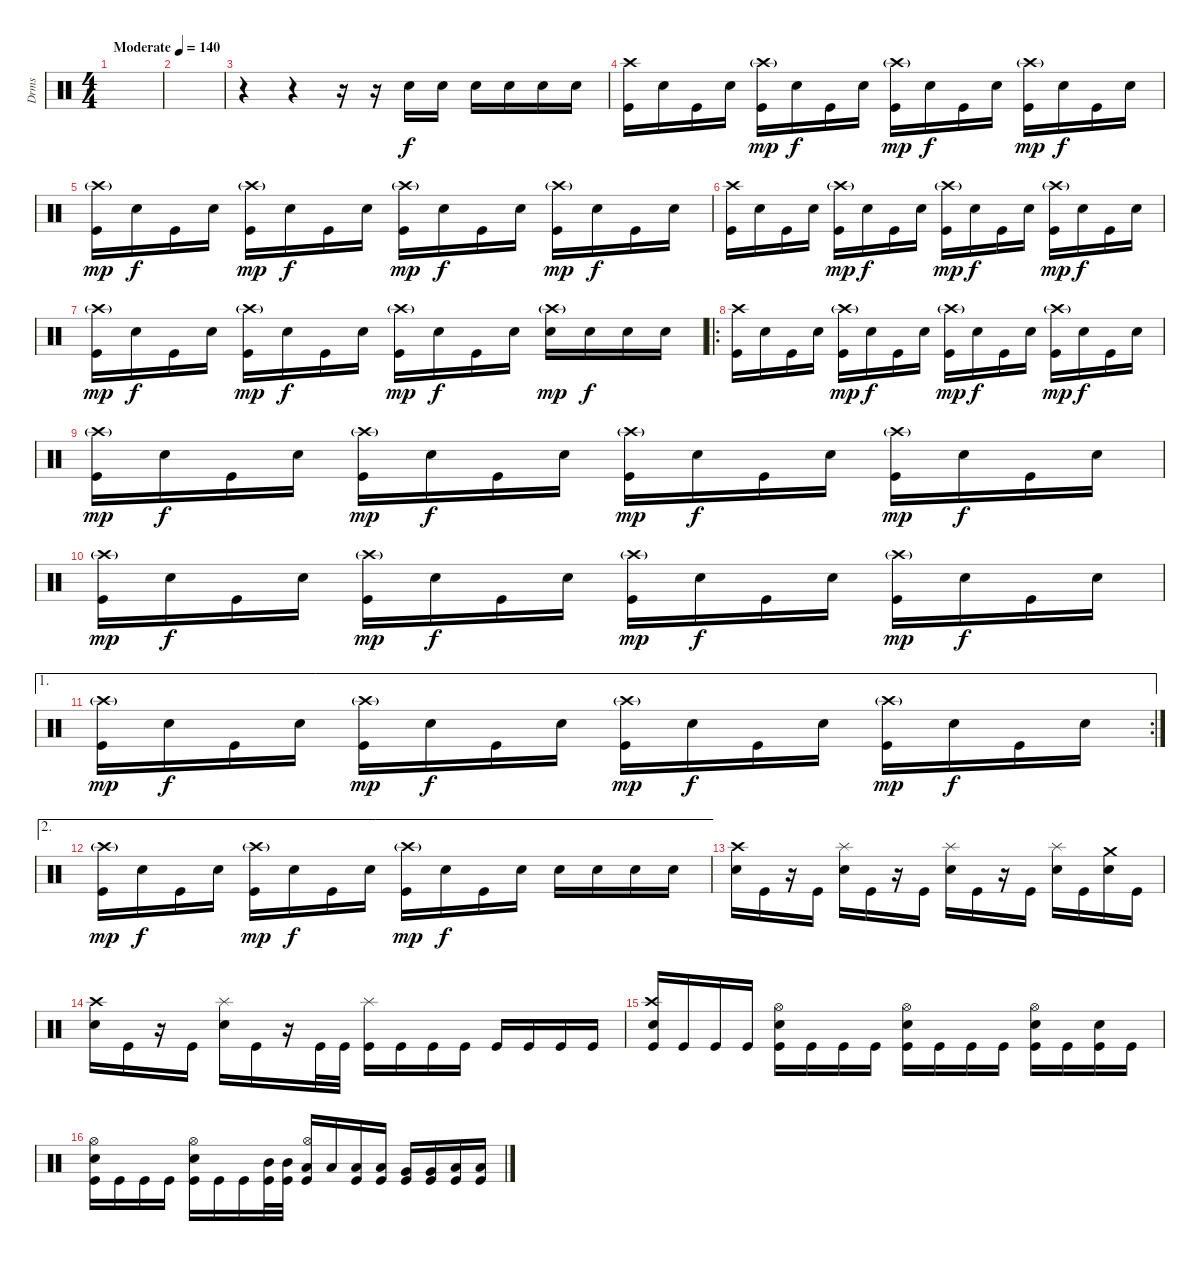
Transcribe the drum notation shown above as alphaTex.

\track ("Drms" "Drms") {instrument percussion}
\staff {score}
\articulation defaults
\ts (4 4)
\tempo (140 "Moderate")
\clef neutral
\ks c
|
|
r.4 r.4 r.16 r.16 "Electric Snare (hit)".16 "Electric Snare (hit)".16 "Electric Snare (hit)".16 "Electric Snare (hit)".16 "Electric Snare (hit)".16 "Electric Snare (hit)".16 |
("Crash high (hit)" "Kick (hit)").16 "Electric Snare (hit)".16 "Kick (hit)".16 "Electric Snare (hit)".16 ("Crash high (hit)"{g} "Kick (hit)").16{dy mp} "Electric Snare (hit)".16{dy f} "Kick (hit)".16 "Electric Snare (hit)".16 ("Crash high (hit)"{g} "Kick (hit)").16{dy mp} "Electric Snare (hit)".16{dy f} "Kick (hit)".16 "Electric Snare (hit)".16 ("Crash high (hit)"{g} "Kick (hit)").16{dy mp} "Electric Snare (hit)".16{dy f} "Kick (hit)".16 "Electric Snare (hit)".16 |
("Crash high (hit)"{g} "Kick (hit)").16{dy mp} "Electric Snare (hit)".16{dy f} "Kick (hit)".16 "Electric Snare (hit)".16 ("Crash high (hit)"{g} "Kick (hit)").16{dy mp} "Electric Snare (hit)".16{dy f} "Kick (hit)".16 "Electric Snare (hit)".16 ("Crash high (hit)"{g} "Kick (hit)").16{dy mp} "Electric Snare (hit)".16{dy f} "Kick (hit)".16 "Electric Snare (hit)".16 ("Crash high (hit)"{g} "Kick (hit)").16{dy mp} "Electric Snare (hit)".16{dy f} "Kick (hit)".16 "Electric Snare (hit)".16 |
("Crash high (hit)" "Kick (hit)").16 "Electric Snare (hit)".16 "Kick (hit)".16 "Electric Snare (hit)".16 ("Crash high (hit)"{g} "Kick (hit)").16{dy mp} "Electric Snare (hit)".16{dy f} "Kick (hit)".16 "Electric Snare (hit)".16 ("Crash high (hit)"{g} "Kick (hit)").16{dy mp} "Electric Snare (hit)".16{dy f} "Kick (hit)".16 "Electric Snare (hit)".16 ("Crash high (hit)"{g} "Kick (hit)").16{dy mp} "Electric Snare (hit)".16{dy f} "Kick (hit)".16 "Electric Snare (hit)".16 |
("Crash high (hit)"{g} "Kick (hit)").16{dy mp} "Electric Snare (hit)".16{dy f} "Kick (hit)".16 "Electric Snare (hit)".16 ("Crash high (hit)"{g} "Kick (hit)").16{dy mp} "Electric Snare (hit)".16{dy f} "Kick (hit)".16 "Electric Snare (hit)".16 ("Crash high (hit)"{g} "Kick (hit)").16{dy mp} "Electric Snare (hit)".16{dy f} "Kick (hit)".16 "Electric Snare (hit)".16 ("Crash high (hit)"{g} "Electric Snare (hit)").16{dy mp} "Electric Snare (hit)".16{dy f} "Electric Snare (hit)".16 "Electric Snare (hit)".16 |
\ro
("Crash high (hit)" "Kick (hit)").16 "Electric Snare (hit)".16 "Kick (hit)".16 "Electric Snare (hit)".16 ("Crash high (hit)"{g} "Kick (hit)").16{dy mp} "Electric Snare (hit)".16{dy f} "Kick (hit)".16 "Electric Snare (hit)".16 ("Crash high (hit)"{g} "Kick (hit)").16{dy mp} "Electric Snare (hit)".16{dy f} "Kick (hit)".16 "Electric Snare (hit)".16 ("Crash high (hit)"{g} "Kick (hit)").16{dy mp} "Electric Snare (hit)".16{dy f} "Kick (hit)".16 "Electric Snare (hit)".16 |
("Crash high (hit)"{g} "Kick (hit)").16{dy mp} "Electric Snare (hit)".16{dy f} "Kick (hit)".16 "Electric Snare (hit)".16 ("Crash high (hit)"{g} "Kick (hit)").16{dy mp} "Electric Snare (hit)".16{dy f} "Kick (hit)".16 "Electric Snare (hit)".16 ("Crash high (hit)"{g} "Kick (hit)").16{dy mp} "Electric Snare (hit)".16{dy f} "Kick (hit)".16 "Electric Snare (hit)".16 ("Crash high (hit)"{g} "Kick (hit)").16{dy mp} "Electric Snare (hit)".16{dy f} "Kick (hit)".16 "Electric Snare (hit)".16 |
("Crash high (hit)"{g} "Kick (hit)").16{dy mp} "Electric Snare (hit)".16{dy f} "Kick (hit)".16 "Electric Snare (hit)".16 ("Crash high (hit)"{g} "Kick (hit)").16{dy mp} "Electric Snare (hit)".16{dy f} "Kick (hit)".16 "Electric Snare (hit)".16 ("Crash high (hit)"{g} "Kick (hit)").16{dy mp} "Electric Snare (hit)".16{dy f} "Kick (hit)".16 "Electric Snare (hit)".16 ("Crash high (hit)"{g} "Kick (hit)").16{dy mp} "Electric Snare (hit)".16{dy f} "Kick (hit)".16 "Electric Snare (hit)".16 |
\ae 1
\rc 2
("Crash high (hit)"{g} "Kick (hit)").16{dy mp} "Electric Snare (hit)".16{dy f} "Kick (hit)".16 "Electric Snare (hit)".16 ("Crash high (hit)"{g} "Kick (hit)").16{dy mp} "Electric Snare (hit)".16{dy f} "Kick (hit)".16 "Electric Snare (hit)".16 ("Crash high (hit)"{g} "Kick (hit)").16{dy mp} "Electric Snare (hit)".16{dy f} "Kick (hit)".16 "Electric Snare (hit)".16 ("Crash high (hit)"{g} "Kick (hit)").16{dy mp} "Electric Snare (hit)".16{dy f} "Kick (hit)".16 "Electric Snare (hit)".16 |
\ae 2
("Crash high (hit)"{g} "Kick (hit)").16{dy mp} "Electric Snare (hit)".16{dy f} "Kick (hit)".16 "Electric Snare (hit)".16 ("Crash high (hit)"{g} "Kick (hit)").16{dy mp} "Electric Snare (hit)".16{dy f} "Kick (hit)".16 "Electric Snare (hit)".16 ("Crash high (hit)"{g} "Kick (hit)").16{dy mp} "Electric Snare (hit)".16{dy f} "Kick (hit)".16 "Electric Snare (hit)".16 "Electric Snare (hit)".16 "Electric Snare (hit)".16 "Electric Snare (hit)".16 "Electric Snare (hit)".16 |
("Crash high (hit)" "Electric Snare (hit)").16 "Kick (hit)".16 r.16 "Kick (hit)".16 ("Splash (hit)" "Electric Snare (hit)").16 "Kick (hit)".16 r.16 "Kick (hit)".16 ("Splash (hit)" "Electric Snare (hit)").16 "Kick (hit)".16 r.16 "Kick (hit)".16 ("Splash (hit)" "Electric Snare (hit)").16 "Kick (hit)".16 ("Crash medium (hit)" "Electric Snare (hit)").16 "Kick (hit)".16 |
("Crash high (hit)" "Electric Snare (hit)").16 "Kick (hit)".16 r.16 "Kick (hit)".16 ("Splash (hit)" "Electric Snare (hit)").16 "Kick (hit)".16 r.16 "Kick (hit)".32 "Kick (hit)".32 ("Splash (hit)" "Kick (hit)").16 "Kick (hit)".16 "Kick (hit)".16 "Kick (hit)".16 "Kick (hit)".16 "Kick (hit)".16 "Kick (hit)".16 "Kick (hit)".16 |
("Crash high (hit)" "Electric Snare (hit)" "Kick (hit)").16 "Kick (hit)".16 "Kick (hit)".16 "Kick (hit)".16 ("Hi-Hat (open)" "Electric Snare (hit)" "Kick (hit)").16 "Kick (hit)".16 "Kick (hit)".16 "Kick (hit)".16 ("Hi-Hat (open)" "Electric Snare (hit)" "Kick (hit)").16 "Kick (hit)".16 "Kick (hit)".16 "Kick (hit)".16 ("Hi-Hat (open)" "Electric Snare (hit)" "Kick (hit)").16 "Kick (hit)".16 ("Electric Snare (hit)" "Kick (hit)").16 "Kick (hit)".16 |
("Hi-Hat (open)" "Electric Snare (hit)" "Kick (hit)").16 "Kick (hit)".16 "Kick (hit)".16 "Kick (hit)".16 ("Hi-Hat (open)" "Electric Snare (hit)" "Kick (hit)").16 "Kick (hit)".16 "Kick (hit)".16 ("Mid Tom (hit)" "Kick (hit)").32 ("Mid Tom (hit)" "Kick (hit)").32 ("Hi-Hat (open)" "Low Tom (hit)" "Kick (hit)").16 "Low Tom (hit)".16 ("Low Tom (hit)" "Kick (hit)").16 ("Low Tom (hit)" "Kick (hit)").16 ("Very Low Tom (hit)" "Kick (hit)").16 ("Very Low Tom (hit)" "Kick (hit)").16 ("Low Floor Tom (hit)" "Kick (hit)").16 ("Low Floor Tom (hit)" "Kick (hit)").16
